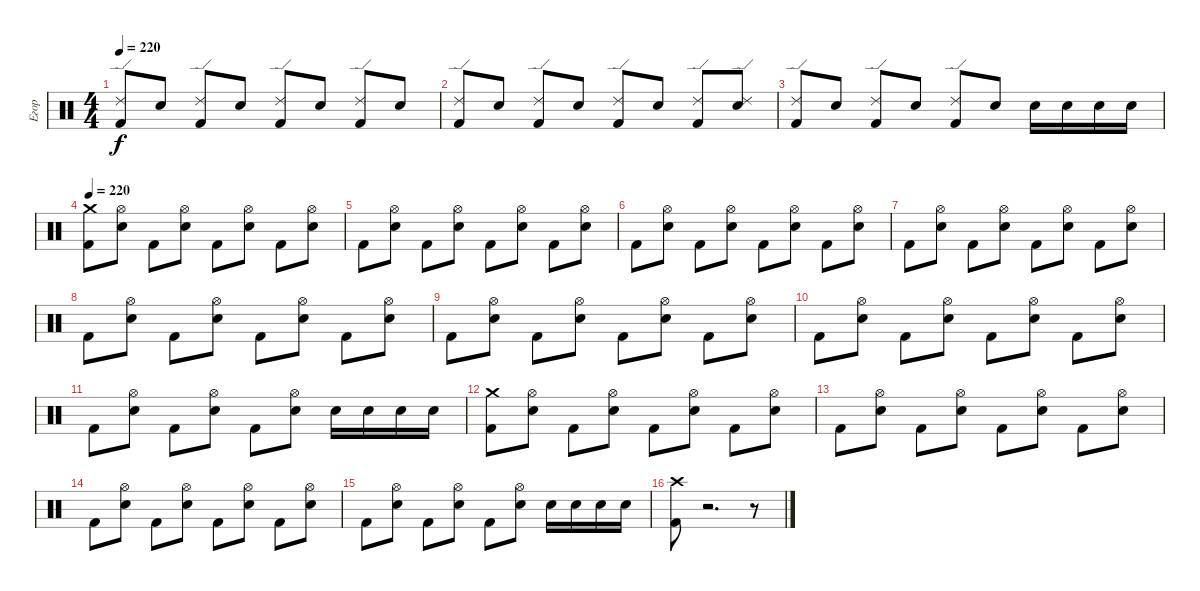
\track ("Егор" "Егор") {instrument percussion}
\staff {score}
\articulation defaults
\ts (4 4)
\tempo 220
\clef neutral
\ks c
("Ride (edge) 2" "Kick (hit) 2").8{dy f} "Snare (hit) 2".8 ("Ride (edge) 2" "Kick (hit) 2").8 "Snare (hit) 2".8 ("Ride (edge) 2" "Kick (hit) 2").8 "Snare (hit) 2".8 ("Ride (edge) 2" "Kick (hit) 2").8 "Snare (hit) 2".8 |
("Ride (edge) 2" "Kick (hit) 2").8 "Snare (hit) 2".8 ("Ride (edge) 2" "Kick (hit) 2").8 "Snare (hit) 2".8 ("Ride (edge) 2" "Kick (hit) 2").8 "Snare (hit) 2".8 ("Ride (edge) 2" "Kick (hit) 2").8 ("Ride (edge) 2" "Snare (hit) 2").8 |
("Ride (edge) 2" "Kick (hit) 2").8 "Snare (hit) 2".8 ("Ride (edge) 2" "Kick (hit) 2").8 "Snare (hit) 2".8 ("Ride (edge) 2" "Kick (hit) 2").8 "Snare (hit) 2".8 "Snare (hit) 2".16 "Snare (hit) 2".16 "Snare (hit) 2".16 "Snare (hit) 2".16 |
\tempo 220
("Crash medium (hit)" "Kick (hit) 2").8 ("Hi-Hat (open)" "Snare (hit) 2").8 "Kick (hit) 2".8 ("Hi-Hat (open)" "Snare (hit) 2").8 "Kick (hit) 2".8 ("Hi-Hat (open)" "Snare (hit) 2").8 "Kick (hit) 2".8 ("Hi-Hat (open)" "Snare (hit) 2").8 |
"Kick (hit) 2".8 ("Hi-Hat (open)" "Snare (hit) 2").8 "Kick (hit) 2".8 ("Hi-Hat (open)" "Snare (hit) 2").8 "Kick (hit) 2".8 ("Hi-Hat (open)" "Snare (hit) 2").8 "Kick (hit) 2".8 ("Hi-Hat (open)" "Snare (hit) 2").8 |
"Kick (hit) 2".8 ("Hi-Hat (open)" "Snare (hit) 2").8 "Kick (hit) 2".8 ("Hi-Hat (open)" "Snare (hit) 2").8 "Kick (hit) 2".8 ("Hi-Hat (open)" "Snare (hit) 2").8 "Kick (hit) 2".8 ("Hi-Hat (open)" "Snare (hit) 2").8 |
"Kick (hit) 2".8 ("Hi-Hat (open)" "Snare (hit) 2").8 "Kick (hit) 2".8 ("Hi-Hat (open)" "Snare (hit) 2").8 "Kick (hit) 2".8 ("Hi-Hat (open)" "Snare (hit) 2").8 "Kick (hit) 2".8 ("Hi-Hat (open)" "Snare (hit) 2").8 |
"Kick (hit) 2".8 ("Hi-Hat (open)" "Snare (hit) 2").8 "Kick (hit) 2".8 ("Hi-Hat (open)" "Snare (hit) 2").8 "Kick (hit) 2".8 ("Hi-Hat (open)" "Snare (hit) 2").8 "Kick (hit) 2".8 ("Hi-Hat (open)" "Snare (hit) 2").8 |
"Kick (hit) 2".8 ("Hi-Hat (open)" "Snare (hit) 2").8 "Kick (hit) 2".8 ("Hi-Hat (open)" "Snare (hit) 2").8 "Kick (hit) 2".8 ("Hi-Hat (open)" "Snare (hit) 2").8 "Kick (hit) 2".8 ("Hi-Hat (open)" "Snare (hit) 2").8 |
"Kick (hit) 2".8 ("Hi-Hat (open)" "Snare (hit) 2").8 "Kick (hit) 2".8 ("Hi-Hat (open)" "Snare (hit) 2").8 "Kick (hit) 2".8 ("Hi-Hat (open)" "Snare (hit) 2").8 "Kick (hit) 2".8 ("Hi-Hat (open)" "Snare (hit) 2").8 |
"Kick (hit) 2".8 ("Hi-Hat (open)" "Snare (hit) 2").8 "Kick (hit) 2".8 ("Hi-Hat (open)" "Snare (hit) 2").8 "Kick (hit) 2".8 ("Hi-Hat (open)" "Snare (hit) 2").8 "Snare (hit) 2".16 "Snare (hit) 2".16 "Snare (hit) 2".16 "Snare (hit) 2".16 |
("Crash medium (hit)" "Kick (hit) 2").8 ("Hi-Hat (open)" "Snare (hit) 2").8 "Kick (hit) 2".8 ("Hi-Hat (open)" "Snare (hit) 2").8 "Kick (hit) 2".8 ("Hi-Hat (open)" "Snare (hit) 2").8 "Kick (hit) 2".8 ("Hi-Hat (open)" "Snare (hit) 2").8 |
"Kick (hit) 2".8 ("Hi-Hat (open)" "Snare (hit) 2").8 "Kick (hit) 2".8 ("Hi-Hat (open)" "Snare (hit) 2").8 "Kick (hit) 2".8 ("Hi-Hat (open)" "Snare (hit) 2").8 "Kick (hit) 2".8 ("Hi-Hat (open)" "Snare (hit) 2").8 |
"Kick (hit) 2".8 ("Hi-Hat (open)" "Snare (hit) 2").8 "Kick (hit) 2".8 ("Hi-Hat (open)" "Snare (hit) 2").8 "Kick (hit) 2".8 ("Hi-Hat (open)" "Snare (hit) 2").8 "Kick (hit) 2".8 ("Hi-Hat (open)" "Snare (hit) 2").8 |
"Kick (hit) 2".8 ("Hi-Hat (open)" "Snare (hit) 2").8 "Kick (hit) 2".8 ("Hi-Hat (open)" "Snare (hit) 2").8 "Kick (hit) 2".8 ("Hi-Hat (open)" "Snare (hit) 2").8 "Snare (hit) 2".16 "Snare (hit) 2".16 "Snare (hit) 2".16 "Snare (hit) 2".16 |
("Crash high (hit)" "Kick (hit) 2").8 r.2{d} r.8
